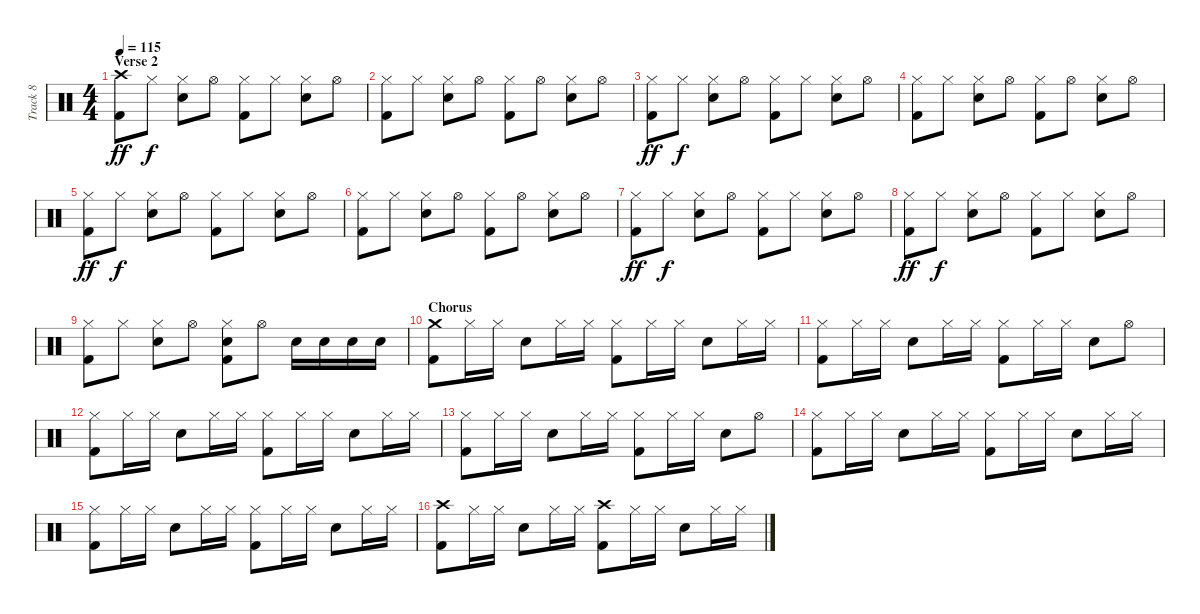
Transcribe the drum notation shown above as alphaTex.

\track ("Track 8" "Track 8") {instrument percussion}
\staff {score}
\articulation defaults
\ts (4 4)
\section ("" "Verse 2")
\tempo 115
\clef neutral
\ks c
("Crash high (hit)" "Kick (hit) 2").8{dy ff} "Hi-Hat (closed)".8{dy f} ("Hi-Hat (closed)" "Electric Snare (hit)").8 "Hi-Hat (open)".8 ("Hi-Hat (closed)" "Kick (hit) 2").8 "Hi-Hat (closed)".8 ("Hi-Hat (closed)" "Electric Snare (hit)").8 "Hi-Hat (open)".8 |
("Hi-Hat (closed)" "Kick (hit) 2").8 "Hi-Hat (closed)".8 ("Hi-Hat (closed)" "Electric Snare (hit)").8 "Hi-Hat (open)".8 ("Hi-Hat (closed)" "Kick (hit) 2").8 "Hi-Hat (open)".8 ("Hi-Hat (closed)" "Electric Snare (hit)").8 "Hi-Hat (open)".8 |
("Hi-Hat (closed)" "Kick (hit) 2").8{dy ff} "Hi-Hat (closed)".8{dy f} ("Hi-Hat (closed)" "Electric Snare (hit)").8 "Hi-Hat (open)".8 ("Hi-Hat (closed)" "Kick (hit) 2").8 "Hi-Hat (closed)".8 ("Hi-Hat (closed)" "Electric Snare (hit)").8 "Hi-Hat (open)".8 |
("Hi-Hat (closed)" "Kick (hit) 2").8 "Hi-Hat (closed)".8 ("Hi-Hat (closed)" "Electric Snare (hit)").8 "Hi-Hat (open)".8 ("Hi-Hat (closed)" "Kick (hit) 2").8 "Hi-Hat (open)".8 ("Hi-Hat (closed)" "Electric Snare (hit)").8 "Hi-Hat (open)".8 |
("Hi-Hat (closed)" "Kick (hit) 2").8{dy ff} "Hi-Hat (closed)".8{dy f} ("Hi-Hat (closed)" "Electric Snare (hit)").8 "Hi-Hat (open)".8 ("Hi-Hat (closed)" "Kick (hit) 2").8 "Hi-Hat (closed)".8 ("Hi-Hat (closed)" "Electric Snare (hit)").8 "Hi-Hat (open)".8 |
("Hi-Hat (closed)" "Kick (hit) 2").8 "Hi-Hat (closed)".8 ("Hi-Hat (closed)" "Electric Snare (hit)").8 "Hi-Hat (open)".8 ("Hi-Hat (closed)" "Kick (hit) 2").8 "Hi-Hat (open)".8 ("Hi-Hat (closed)" "Electric Snare (hit)").8 "Hi-Hat (open)".8 |
("Hi-Hat (closed)" "Kick (hit) 2").8{dy ff} "Hi-Hat (closed)".8{dy f} ("Hi-Hat (closed)" "Electric Snare (hit)").8 "Hi-Hat (open)".8 ("Hi-Hat (closed)" "Kick (hit) 2").8 "Hi-Hat (closed)".8 ("Hi-Hat (closed)" "Electric Snare (hit)").8 "Hi-Hat (open)".8 |
("Hi-Hat (closed)" "Kick (hit) 2").8{dy ff} "Hi-Hat (closed)".8{dy f} ("Hi-Hat (closed)" "Electric Snare (hit)").8 "Hi-Hat (open)".8 ("Hi-Hat (closed)" "Kick (hit) 2").8 "Hi-Hat (closed)".8 ("Hi-Hat (closed)" "Electric Snare (hit)").8 "Hi-Hat (open)".8 |
("Hi-Hat (closed)" "Kick (hit) 2").8 "Hi-Hat (closed)".8 ("Hi-Hat (closed)" "Electric Snare (hit)").8 "Hi-Hat (open)".8 ("Hi-Hat (closed)" "Electric Snare (hit)" "Kick (hit) 2").8 "Hi-Hat (open)".8 "Electric Snare (hit)".16 "Electric Snare (hit)".16 "Electric Snare (hit)".16 "Electric Snare (hit)".16 |
\section ("" "Chorus")
("Crash medium (hit)" "Kick (hit) 2").8 "Hi-Hat (closed)".16 "Hi-Hat (closed)".16 "Electric Snare (hit)".8 "Hi-Hat (closed)".16 "Hi-Hat (closed)".16 ("Hi-Hat (closed)" "Kick (hit) 2").8 "Hi-Hat (closed)".16 "Hi-Hat (closed)".16 "Electric Snare (hit)".8 "Hi-Hat (closed)".16 "Hi-Hat (closed)".16 |
("Hi-Hat (closed)" "Kick (hit) 2").8 "Hi-Hat (closed)".16 "Hi-Hat (closed)".16 "Electric Snare (hit)".8 "Hi-Hat (closed)".16 "Hi-Hat (closed)".16 ("Hi-Hat (closed)" "Kick (hit) 2").8 "Hi-Hat (closed)".16 "Hi-Hat (closed)".16 "Electric Snare (hit)".8 "Hi-Hat (open)".8 |
("Hi-Hat (closed)" "Kick (hit) 2").8 "Hi-Hat (closed)".16 "Hi-Hat (closed)".16 "Electric Snare (hit)".8 "Hi-Hat (closed)".16 "Hi-Hat (closed)".16 ("Hi-Hat (closed)" "Kick (hit) 2").8 "Hi-Hat (closed)".16 "Hi-Hat (closed)".16 "Electric Snare (hit)".8 "Hi-Hat (closed)".16 "Hi-Hat (closed)".16 |
("Hi-Hat (closed)" "Kick (hit) 2").8 "Hi-Hat (closed)".16 "Hi-Hat (closed)".16 "Electric Snare (hit)".8 "Hi-Hat (closed)".16 "Hi-Hat (closed)".16 ("Hi-Hat (closed)" "Kick (hit) 2").8 "Hi-Hat (closed)".16 "Hi-Hat (closed)".16 "Electric Snare (hit)".8 "Hi-Hat (open)".8 |
("Hi-Hat (closed)" "Kick (hit) 2").8 "Hi-Hat (closed)".16 "Hi-Hat (closed)".16 "Electric Snare (hit)".8 "Hi-Hat (closed)".16 "Hi-Hat (closed)".16 ("Hi-Hat (closed)" "Kick (hit) 2").8 "Hi-Hat (closed)".16 "Hi-Hat (closed)".16 "Electric Snare (hit)".8 "Hi-Hat (closed)".16 "Hi-Hat (closed)".16 |
("Hi-Hat (closed)" "Kick (hit) 2").8 "Hi-Hat (closed)".16 "Hi-Hat (closed)".16 "Electric Snare (hit)".8 "Hi-Hat (closed)".16 "Hi-Hat (closed)".16 ("Hi-Hat (closed)" "Kick (hit) 2").8 "Hi-Hat (closed)".16 "Hi-Hat (closed)".16 "Electric Snare (hit)".8 "Hi-Hat (closed)".16 "Hi-Hat (closed)".16 |
("Crash high (hit)" "Kick (hit) 2").8 "Hi-Hat (closed)".16 "Hi-Hat (closed)".16 "Electric Snare (hit)".8 "Hi-Hat (closed)".16 "Hi-Hat (closed)".16 ("Crash high (hit)" "Kick (hit) 2").8 "Hi-Hat (closed)".16 "Hi-Hat (closed)".16 "Electric Snare (hit)".8 "Hi-Hat (closed)".16 "Hi-Hat (closed)".16
